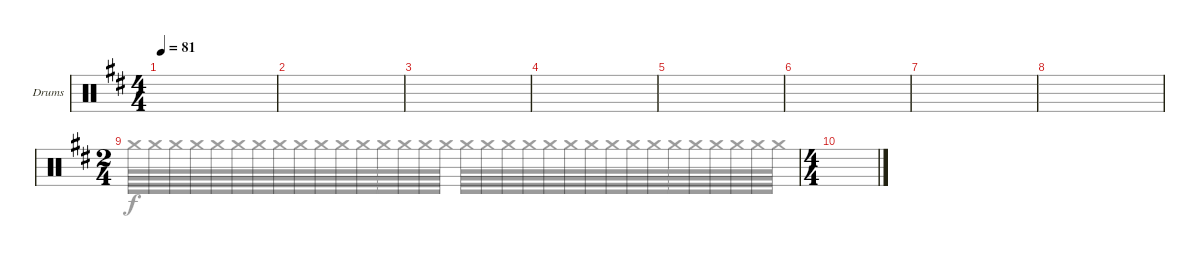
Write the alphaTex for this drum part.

\defaultSystemsLayout 4
\bracketExtendMode groupsimilarinstruments
\firstSystemTrackNameOrientation horizontal
\otherSystemsTrackNameOrientation horizontal
\track ("Effects" "Drums") {instrument percussion}
\staff {score}
\articulation defaults
\voice
\ts (4 4)
\scale
0.617477
\tempo 81
\accidentals auto
\clef neutral
\ottava regular
\simile none
\ks bminor
|
\scale
0.382345 |
\scale
0.552721 |
\scale
0.447256 |
\scale
0.532537 |
\scale
0.46749 |
\scale
0.419768 |
\scale
0.292215 |
\ts (2 4)
\scale
0.288763 |
\ts (4 4)
|
|
|
|
|
|
\voice
\clef neutral
\ottava regular
\simile none
\ks bminor
|
|
|
|
|
|
|
|
"Crash medium (hit)".64 "Crash medium (hit)".64 "Crash medium (hit)".64 "Crash medium (hit)".64 "Crash medium (hit)".64 "Crash medium (hit)".64 "Crash medium (hit)".64 "Crash medium (hit)".64 "Crash medium (hit)".64 "Crash medium (hit)".64 "Crash medium (hit)".64 "Crash medium (hit)".64 "Crash medium (hit)".64 "Crash medium (hit)".64 "Crash medium (hit)".64 "Crash medium (hit)".64 "Crash medium (hit)".64 "Crash medium (hit)".64 "Crash medium (hit)".64 "Crash medium (hit)".64 "Crash medium (hit)".64 "Crash medium (hit)".64 "Crash medium (hit)".64 "Crash medium (hit)".64 "Crash medium (hit)".64 "Crash medium (hit)".64 "Crash medium (hit)".64 "Crash medium (hit)".64 "Crash medium (hit)".64 "Crash medium (hit)".64 "Crash medium (hit)".64 "Crash medium (hit)".64 |
|
|
|
|
|
|
